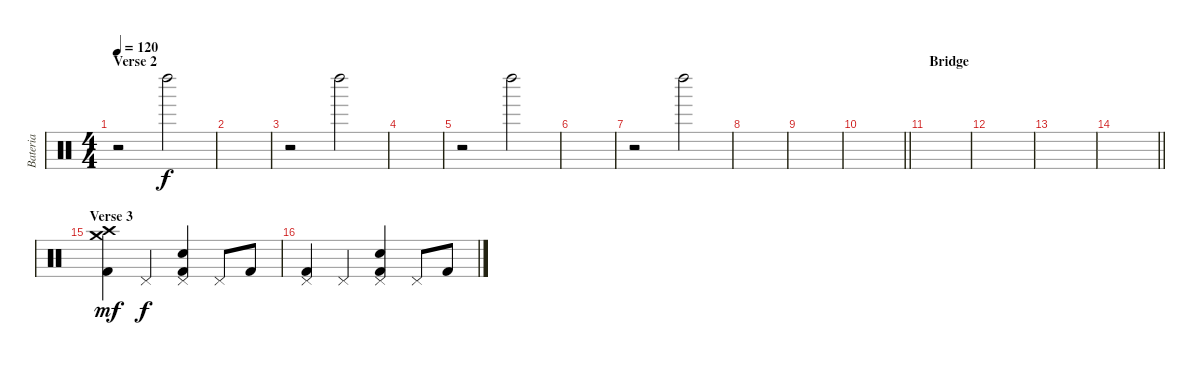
\track ("Bateria" "Bateria") {instrument percussion}
\staff {score}
\articulation defaults
\ts (4 4)
\section ("" "Verse 2")
\tempo 120
\clef neutral
\ks c
r.2{dy f} "Left Maraca (hit)".2 |
|
r.2 "Left Maraca (hit)".2 |
|
r.2 "Left Maraca (hit)".2 |
|
r.2 "Left Maraca (hit)".2 |
|
|
\barLineRight lightlight
|
\section ("" "Bridge")
|
|
|
\barLineRight lightlight
|
\section ("" "Verse 3")
("Crash medium (hit)" "Crash high (hit)" "Kick (hit) 2").4{dy mf} "Pedal Hi-Hat (hit)".4{dy f} ("Pedal Hi-Hat (hit)" "Electric Snare (hit)" "Kick (hit) 2").4 "Pedal Hi-Hat (hit)".8 "Kick (hit) 2".8 |
("Pedal Hi-Hat (hit)" "Kick (hit) 2").4 "Pedal Hi-Hat (hit)".4 ("Pedal Hi-Hat (hit)" "Electric Snare (hit)" "Kick (hit) 2").4 "Pedal Hi-Hat (hit)".8 "Kick (hit) 2".8
